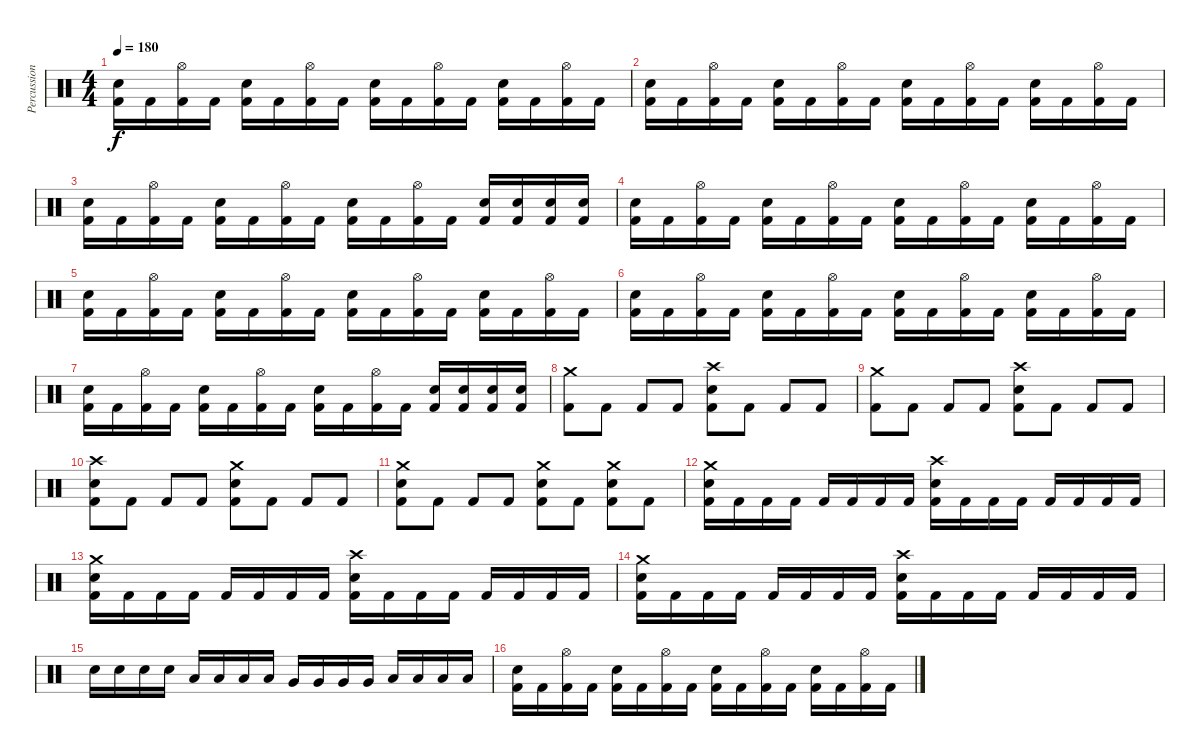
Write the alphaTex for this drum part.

\track ("Percussion" "Percussion") {instrument percussion}
\staff {score}
\articulation defaults
\ts (4 4)
\tempo 180
\clef neutral
\ks c
("Kick (hit) 2" "Snare (hit) 2").16{dy f} "Kick (hit) 2".16 ("Kick (hit) 2" "Hi-Hat (open)").16 "Kick (hit) 2".16 ("Kick (hit) 2" "Snare (hit) 2").16 "Kick (hit) 2".16 ("Kick (hit) 2" "Hi-Hat (open)").16 "Kick (hit) 2".16 ("Kick (hit) 2" "Snare (hit) 2").16 "Kick (hit) 2".16 ("Kick (hit) 2" "Hi-Hat (open)").16 "Kick (hit) 2".16 ("Kick (hit) 2" "Snare (hit) 2").16 "Kick (hit) 2".16 ("Kick (hit) 2" "Hi-Hat (open)").16 "Kick (hit) 2".16 |
("Kick (hit) 2" "Snare (hit) 2").16 "Kick (hit) 2".16 ("Kick (hit) 2" "Hi-Hat (open)").16 "Kick (hit) 2".16 ("Kick (hit) 2" "Snare (hit) 2").16 "Kick (hit) 2".16 ("Kick (hit) 2" "Hi-Hat (open)").16 "Kick (hit) 2".16 ("Kick (hit) 2" "Snare (hit) 2").16 "Kick (hit) 2".16 ("Kick (hit) 2" "Hi-Hat (open)").16 "Kick (hit) 2".16 ("Kick (hit) 2" "Snare (hit) 2").16 "Kick (hit) 2".16 ("Kick (hit) 2" "Hi-Hat (open)").16 "Kick (hit) 2".16 |
("Kick (hit) 2" "Snare (hit) 2").16 "Kick (hit) 2".16 ("Kick (hit) 2" "Hi-Hat (open)").16 "Kick (hit) 2".16 ("Kick (hit) 2" "Snare (hit) 2").16 "Kick (hit) 2".16 ("Kick (hit) 2" "Hi-Hat (open)").16 "Kick (hit) 2".16 ("Kick (hit) 2" "Snare (hit) 2").16 "Kick (hit) 2".16 ("Kick (hit) 2" "Hi-Hat (open)").16 "Kick (hit) 2".16 ("Kick (hit) 2" "Snare (hit) 2").16 ("Kick (hit) 2" "Snare (hit) 2").16 ("Kick (hit) 2" "Snare (hit) 2").16 ("Kick (hit) 2" "Snare (hit) 2").16 |
("Kick (hit) 2" "Snare (hit) 2").16 "Kick (hit) 2".16 ("Kick (hit) 2" "Hi-Hat (open)").16 "Kick (hit) 2".16 ("Kick (hit) 2" "Snare (hit) 2").16 "Kick (hit) 2".16 ("Kick (hit) 2" "Hi-Hat (open)").16 "Kick (hit) 2".16 ("Kick (hit) 2" "Snare (hit) 2").16 "Kick (hit) 2".16 ("Kick (hit) 2" "Hi-Hat (open)").16 "Kick (hit) 2".16 ("Kick (hit) 2" "Snare (hit) 2").16 "Kick (hit) 2".16 ("Kick (hit) 2" "Hi-Hat (open)").16 "Kick (hit) 2".16 |
("Kick (hit) 2" "Snare (hit) 2").16 "Kick (hit) 2".16 ("Kick (hit) 2" "Hi-Hat (open)").16 "Kick (hit) 2".16 ("Kick (hit) 2" "Snare (hit) 2").16 "Kick (hit) 2".16 ("Kick (hit) 2" "Hi-Hat (open)").16 "Kick (hit) 2".16 ("Kick (hit) 2" "Snare (hit) 2").16 "Kick (hit) 2".16 ("Kick (hit) 2" "Hi-Hat (open)").16 "Kick (hit) 2".16 ("Kick (hit) 2" "Snare (hit) 2").16 "Kick (hit) 2".16 ("Kick (hit) 2" "Hi-Hat (open)").16 "Kick (hit) 2".16 |
("Kick (hit) 2" "Snare (hit) 2").16 "Kick (hit) 2".16 ("Kick (hit) 2" "Hi-Hat (open)").16 "Kick (hit) 2".16 ("Kick (hit) 2" "Snare (hit) 2").16 "Kick (hit) 2".16 ("Kick (hit) 2" "Hi-Hat (open)").16 "Kick (hit) 2".16 ("Kick (hit) 2" "Snare (hit) 2").16 "Kick (hit) 2".16 ("Kick (hit) 2" "Hi-Hat (open)").16 "Kick (hit) 2".16 ("Kick (hit) 2" "Snare (hit) 2").16 "Kick (hit) 2".16 ("Kick (hit) 2" "Hi-Hat (open)").16 "Kick (hit) 2".16 |
("Kick (hit) 2" "Snare (hit) 2").16 "Kick (hit) 2".16 ("Kick (hit) 2" "Hi-Hat (open)").16 "Kick (hit) 2".16 ("Kick (hit) 2" "Snare (hit) 2").16 "Kick (hit) 2".16 ("Kick (hit) 2" "Hi-Hat (open)").16 "Kick (hit) 2".16 ("Kick (hit) 2" "Snare (hit) 2").16 "Kick (hit) 2".16 ("Kick (hit) 2" "Hi-Hat (open)").16 "Kick (hit) 2".16 ("Kick (hit) 2" "Snare (hit) 2").16 ("Kick (hit) 2" "Snare (hit) 2").16 ("Kick (hit) 2" "Snare (hit) 2").16 ("Kick (hit) 2" "Snare (hit) 2").16 |
("Kick (hit) 2" "Crash medium (hit)").8 "Kick (hit) 2".8 "Kick (hit) 2".8 "Kick (hit) 2".8 ("Kick (hit) 2" "Snare (hit) 2" "Crash high (hit)").8 "Kick (hit) 2".8 "Kick (hit) 2".8 "Kick (hit) 2".8 |
("Kick (hit) 2" "Crash medium (hit)").8 "Kick (hit) 2".8 "Kick (hit) 2".8 "Kick (hit) 2".8 ("Kick (hit) 2" "Snare (hit) 2" "Crash high (hit)").8 "Kick (hit) 2".8 "Kick (hit) 2".8 "Kick (hit) 2".8 |
("Kick (hit) 2" "Snare (hit) 2" "Crash high (hit)").8 "Kick (hit) 2".8 "Kick (hit) 2".8 "Kick (hit) 2".8 ("Kick (hit) 2" "Snare (hit) 2" "Crash medium (hit)").8 "Kick (hit) 2".8 "Kick (hit) 2".8 "Kick (hit) 2".8 |
("Kick (hit) 2" "Snare (hit) 2" "Crash medium (hit)").8 "Kick (hit) 2".8 "Kick (hit) 2".8 "Kick (hit) 2".8 ("Kick (hit) 2" "Snare (hit) 2" "Crash medium (hit)").8 "Kick (hit) 2".8 ("Kick (hit) 2" "Snare (hit) 2" "Crash medium (hit)").8 "Kick (hit) 2".8 |
("Kick (hit) 2" "Snare (hit) 2" "Crash medium (hit)").16 "Kick (hit) 2".16 "Kick (hit) 2".16 "Kick (hit) 2".16 "Kick (hit) 2".16 "Kick (hit) 2".16 "Kick (hit) 2".16 "Kick (hit) 2".16 ("Kick (hit) 2" "Snare (hit) 2" "Crash high (hit)").16 "Kick (hit) 2".16 "Kick (hit) 2".16 "Kick (hit) 2".16 "Kick (hit) 2".16 "Kick (hit) 2".16 "Kick (hit) 2".16 "Kick (hit) 2".16 |
("Kick (hit) 2" "Snare (hit) 2" "Crash medium (hit)").16 "Kick (hit) 2".16 "Kick (hit) 2".16 "Kick (hit) 2".16 "Kick (hit) 2".16 "Kick (hit) 2".16 "Kick (hit) 2".16 "Kick (hit) 2".16 ("Kick (hit) 2" "Snare (hit) 2" "Crash high (hit)").16 "Kick (hit) 2".16 "Kick (hit) 2".16 "Kick (hit) 2".16 "Kick (hit) 2".16 "Kick (hit) 2".16 "Kick (hit) 2".16 "Kick (hit) 2".16 |
("Kick (hit) 2" "Snare (hit) 2" "Crash medium (hit)").16 "Kick (hit) 2".16 "Kick (hit) 2".16 "Kick (hit) 2".16 "Kick (hit) 2".16 "Kick (hit) 2".16 "Kick (hit) 2".16 "Kick (hit) 2".16 ("Kick (hit) 2" "Snare (hit) 2" "Crash high (hit)").16 "Kick (hit) 2".16 "Kick (hit) 2".16 "Kick (hit) 2".16 "Kick (hit) 2".16 "Kick (hit) 2".16 "Kick (hit) 2".16 "Kick (hit) 2".16 |
"Snare (hit) 2".16 "Snare (hit) 2".16 "Snare (hit) 2".16 "Snare (hit) 2".16 "Low Tom (hit)".16 "Low Tom (hit)".16 "Low Tom (hit)".16 "Low Tom (hit)".16 "Very Low Tom (hit)".16 "Very Low Tom (hit)".16 "Very Low Tom (hit)".16 "Very Low Tom (hit)".16 "Low Floor Tom (hit)".16 "Low Floor Tom (hit)".16 "Low Floor Tom (hit)".16 "Low Floor Tom (hit)".16 |
("Kick (hit) 2" "Snare (hit) 2").16 "Kick (hit) 2".16 ("Kick (hit) 2" "Hi-Hat (open)").16 "Kick (hit) 2".16 ("Kick (hit) 2" "Snare (hit) 2").16 "Kick (hit) 2".16 ("Kick (hit) 2" "Hi-Hat (open)").16 "Kick (hit) 2".16 ("Kick (hit) 2" "Snare (hit) 2").16 "Kick (hit) 2".16 ("Kick (hit) 2" "Hi-Hat (open)").16 "Kick (hit) 2".16 ("Kick (hit) 2" "Snare (hit) 2").16 "Kick (hit) 2".16 ("Kick (hit) 2" "Hi-Hat (open)").16 "Kick (hit) 2".16
